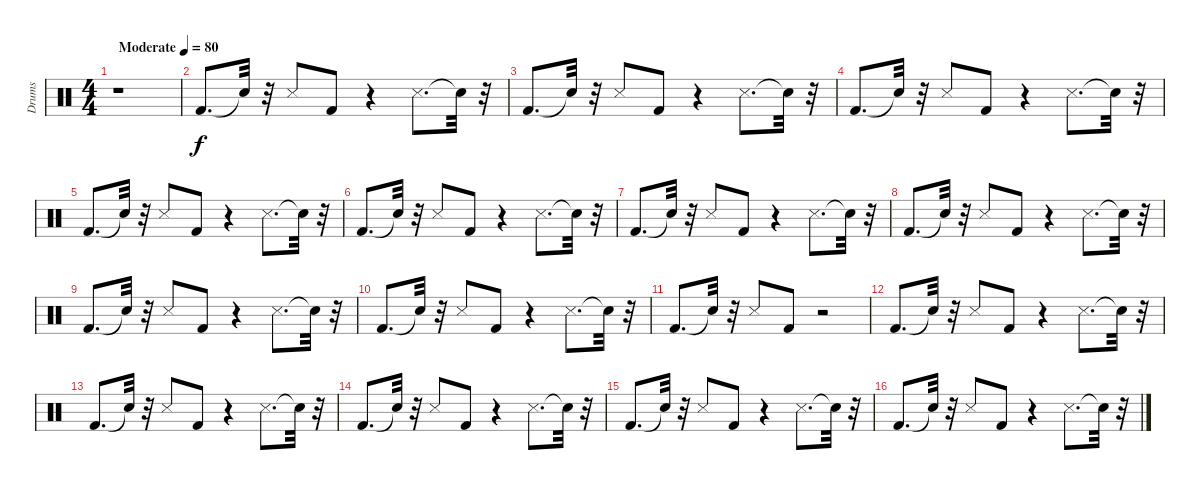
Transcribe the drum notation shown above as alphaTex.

\track ("Drums" "Drums") {instrument percussion}
\staff {score}
\articulation defaults
\ts (4 4)
\tempo (80 "Moderate")
\clef neutral
\ks c
r.1{dy f} |
"Kick (hit) 2".8{d} "Snare (hit)"{t}.32 r.32 "Snare (side stick) 3".8 "Kick (hit) 2".8 r.4 "Snare (side stick) 3".8{d} "Snare (hit)"{t}.32 r.32 |
"Kick (hit) 2".8{d} "Snare (hit)"{t}.32 r.32 "Snare (side stick) 3".8 "Kick (hit) 2".8 r.4 "Snare (side stick) 3".8{d} "Snare (hit)"{t}.32 r.32 |
"Kick (hit) 2".8{d} "Snare (hit)"{t}.32 r.32 "Snare (side stick) 3".8 "Kick (hit) 2".8 r.4 "Snare (side stick) 3".8{d} "Snare (hit)"{t}.32 r.32 |
"Kick (hit) 2".8{d} "Snare (hit)"{t}.32 r.32 "Snare (side stick) 3".8 "Kick (hit) 2".8 r.4 "Snare (side stick) 3".8{d} "Snare (hit)"{t}.32 r.32 |
"Kick (hit) 2".8{d} "Snare (hit)"{t}.32 r.32 "Snare (side stick) 3".8 "Kick (hit) 2".8 r.4 "Snare (side stick) 3".8{d} "Snare (hit)"{t}.32 r.32 |
"Kick (hit) 2".8{d} "Snare (hit)"{t}.32 r.32 "Snare (side stick) 3".8 "Kick (hit) 2".8 r.4 "Snare (side stick) 3".8{d} "Snare (hit)"{t}.32 r.32 |
"Kick (hit) 2".8{d} "Snare (hit)"{t}.32 r.32 "Snare (side stick) 3".8 "Kick (hit) 2".8 r.4 "Snare (side stick) 3".8{d} "Snare (hit)"{t}.32 r.32 |
"Kick (hit) 2".8{d} "Snare (hit)"{t}.32 r.32 "Snare (side stick) 3".8 "Kick (hit) 2".8 r.4 "Snare (side stick) 3".8{d} "Snare (hit)"{t}.32 r.32 |
"Kick (hit) 2".8{d} "Snare (hit)"{t}.32 r.32 "Snare (side stick) 3".8 "Kick (hit) 2".8 r.4 "Snare (side stick) 3".8{d} "Snare (hit)"{t}.32 r.32 |
"Kick (hit) 2".8{d} "Snare (hit)"{t}.32 r.32 "Snare (side stick) 3".8 "Kick (hit) 2".8 r.2 |
"Kick (hit) 2".8{d} "Snare (hit)"{t}.32 r.32 "Snare (side stick) 3".8 "Kick (hit) 2".8 r.4 "Snare (side stick) 3".8{d} "Snare (hit)"{t}.32 r.32 |
"Kick (hit) 2".8{d} "Snare (hit)"{t}.32 r.32 "Snare (side stick) 3".8 "Kick (hit) 2".8 r.4 "Snare (side stick) 3".8{d} "Snare (hit)"{t}.32 r.32 |
"Kick (hit) 2".8{d} "Snare (hit)"{t}.32 r.32 "Snare (side stick) 3".8 "Kick (hit) 2".8 r.4 "Snare (side stick) 3".8{d} "Snare (hit)"{t}.32 r.32 |
"Kick (hit) 2".8{d} "Snare (hit)"{t}.32 r.32 "Snare (side stick) 3".8 "Kick (hit) 2".8 r.4 "Snare (side stick) 3".8{d} "Snare (hit)"{t}.32 r.32 |
"Kick (hit) 2".8{d} "Snare (hit)"{t}.32 r.32 "Snare (side stick) 3".8 "Kick (hit) 2".8 r.4 "Snare (side stick) 3".8{d} "Snare (hit)"{t}.32 r.32
